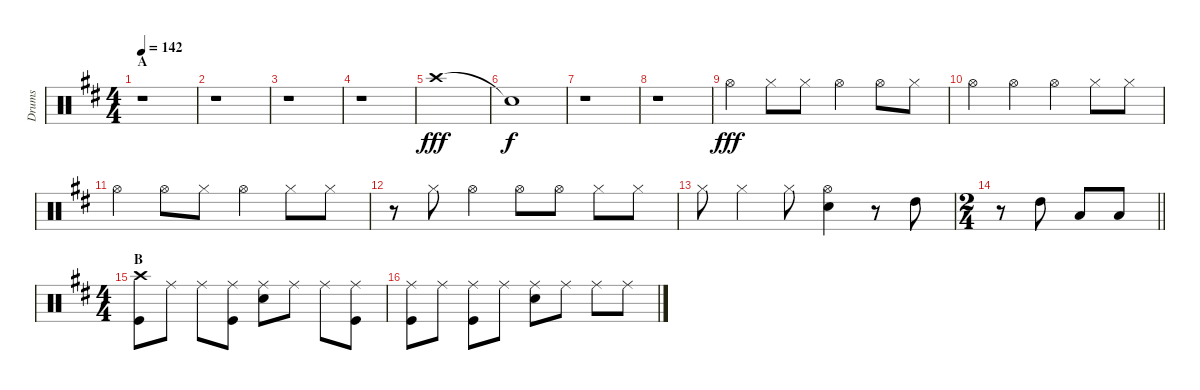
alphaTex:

\track ("Drums" "Drums") {instrument percussion}
\staff {score}
\articulation defaults
\ts (4 4)
\section ("" "A")
\tempo 142
\clef neutral
\ks d
r.1{dy fff} |
r.1 |
r.1 |
r.1 |
"Crash high (hit)".1 |
"Snare (hit)"{t}.1{dy f} |
r.1 |
r.1 |
"Hi-Hat (open)".4{dy fff} "Hi-Hat (closed)".8 "Hi-Hat (closed)".8 "Hi-Hat (open)".4 "Hi-Hat (open)".8 "Hi-Hat (closed)".8 |
"Hi-Hat (open)".4 "Hi-Hat (open)".4 "Hi-Hat (open)".4 "Hi-Hat (closed)".8 "Hi-Hat (closed)".8 |
"Hi-Hat (open)".4 "Hi-Hat (open)".8 "Hi-Hat (closed)".8 "Hi-Hat (open)".4 "Hi-Hat (closed)".8 "Hi-Hat (closed)".8 |
r.8 "Hi-Hat (closed)".8 "Hi-Hat (open)".4 "Hi-Hat (open)".8 "Hi-Hat (open)".8 "Hi-Hat (closed)".8 "Hi-Hat (closed)".8 |
"Hi-Hat (closed)".8 "Hi-Hat (closed)".4 "Hi-Hat (closed)".8 ("Hi-Hat (open)" "Snare (hit) 2").4 r.8 "High Tom (hit)".8 |
\ts (2 4)
\barLineRight lightlight
r.8 "High Tom (hit)".8 "Low Tom (hit)".8 "Low Tom (hit)".8 |
\ts (4 4)
\section ("" "B")
("Crash high (hit)" "Kick (hit)").8 "Ride (middle)".8 "Ride (middle)".8 ("Ride (middle)" "Kick (hit)").8 ("Ride (middle)" "Snare (hit) 2").8 "Ride (middle)".8 "Ride (middle)".8 ("Ride (middle)" "Kick (hit)").8 |
("Ride (middle)" "Kick (hit)").8 "Ride (middle)".8 ("Ride (middle)" "Kick (hit)").8 "Ride (middle)".8 ("Ride (middle)" "Snare (hit) 2").8 "Ride (middle)".8 "Ride (middle)".8 "Ride (middle)".8
